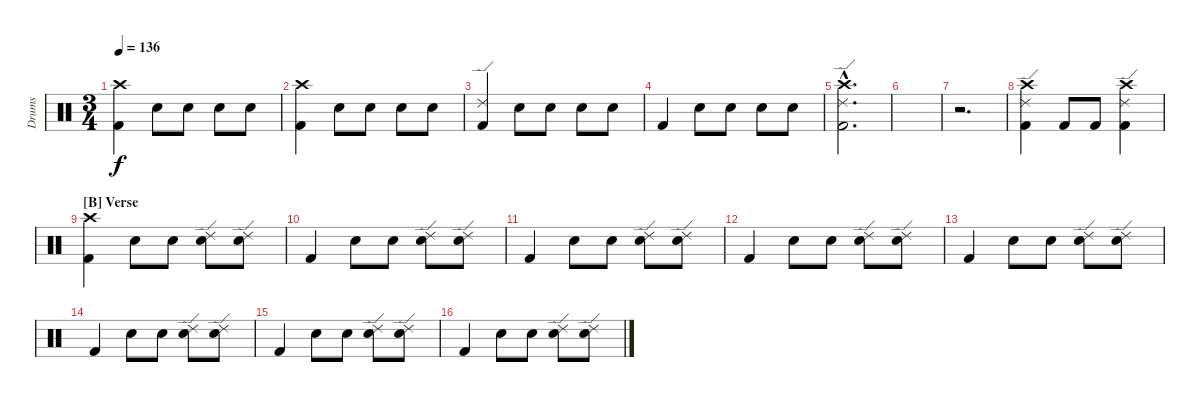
\track ("Drums" "Drums") {instrument percussion}
\staff {score}
\articulation defaults
\ts (3 4)
\tempo 136
\clef neutral
\ks aminor
("Crash high (hit)" "Kick (hit) 2").4{dy f} "Snare (hit) 2".8 "Snare (hit) 2".8 "Snare (hit) 2".8 "Snare (hit) 2".8 |
("Crash high (hit)" "Kick (hit) 2").4 "Snare (hit) 2".8 "Snare (hit) 2".8 "Snare (hit) 2".8 "Snare (hit) 2".8 |
("Ride (edge) 2" "Kick (hit) 2").4 "Snare (hit) 2".8 "Snare (hit) 2".8 "Snare (hit) 2".8 "Snare (hit) 2".8 |
"Kick (hit) 2".4 "Snare (hit) 2".8 "Snare (hit) 2".8 "Snare (hit) 2".8 "Snare (hit) 2".8 |
("Ride (edge) 2"{hac} "Crash high (hit)"{hac} "Kick (hit) 2"{hac}).2{d} |
|
r.2{d} |
("Ride (edge) 2" "Crash high (hit)" "Kick (hit) 2").4 "Kick (hit) 2".8 "Kick (hit) 2".8 ("Ride (edge) 2" "Crash high (hit)" "Kick (hit) 2").4 |
\section ("" "[B] Verse")
("Crash high (hit)" "Kick (hit) 2").4 "Snare (hit) 2".8 "Snare (hit) 2".8 ("Ride (edge) 2" "Snare (hit) 2").8 ("Ride (edge) 2" "Snare (hit) 2").8 |
"Kick (hit) 2".4 "Snare (hit) 2".8 "Snare (hit) 2".8 ("Ride (edge) 2" "Snare (hit) 2").8 ("Ride (edge) 2" "Snare (hit) 2").8 |
"Kick (hit) 2".4 "Snare (hit) 2".8 "Snare (hit) 2".8 ("Ride (edge) 2" "Snare (hit) 2").8 ("Ride (edge) 2" "Snare (hit) 2").8 |
"Kick (hit) 2".4 "Snare (hit) 2".8 "Snare (hit) 2".8 ("Ride (edge) 2" "Snare (hit) 2").8 ("Ride (edge) 2" "Snare (hit) 2").8 |
"Kick (hit) 2".4 "Snare (hit) 2".8 "Snare (hit) 2".8 ("Ride (edge) 2" "Snare (hit) 2").8 ("Ride (edge) 2" "Snare (hit) 2").8 |
"Kick (hit) 2".4 "Snare (hit) 2".8 "Snare (hit) 2".8 ("Ride (edge) 2" "Snare (hit) 2").8 ("Ride (edge) 2" "Snare (hit) 2").8 |
"Kick (hit) 2".4 "Snare (hit) 2".8 "Snare (hit) 2".8 ("Ride (edge) 2" "Snare (hit) 2").8 ("Ride (edge) 2" "Snare (hit) 2").8 |
"Kick (hit) 2".4 "Snare (hit) 2".8 "Snare (hit) 2".8 ("Ride (edge) 2" "Snare (hit) 2").8 ("Ride (edge) 2" "Snare (hit) 2").8
